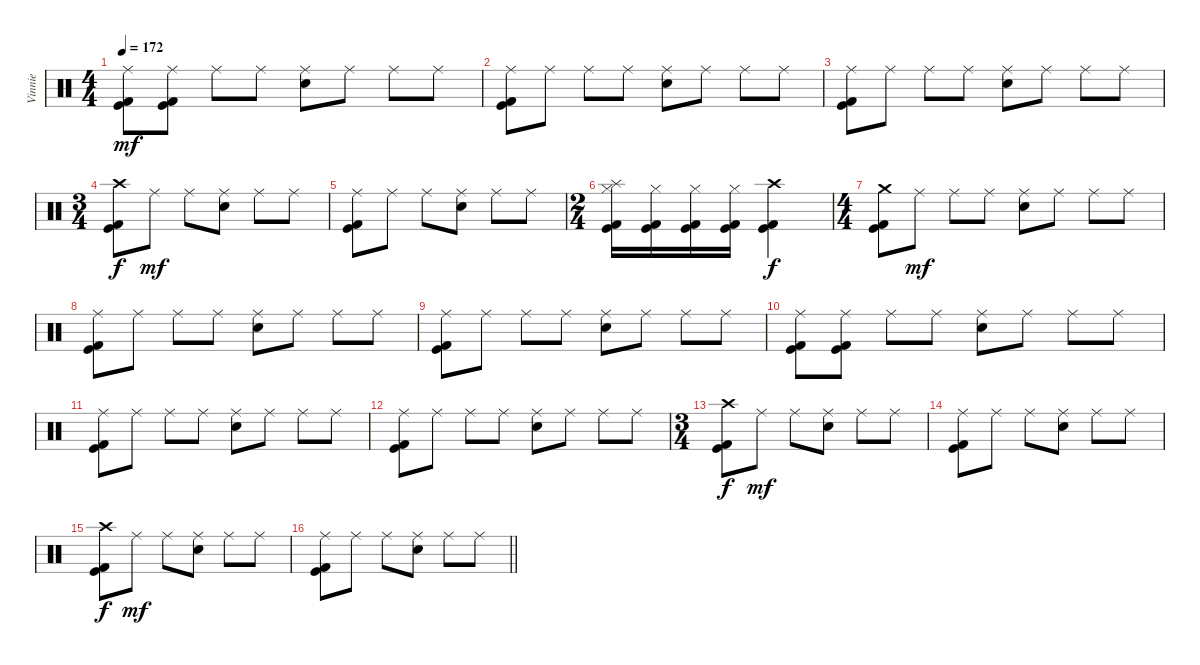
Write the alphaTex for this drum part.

\track ("Vinnie" "Vinnie") {instrument percussion}
\staff {score}
\articulation defaults
\ts (4 4)
\tempo 172
\clef neutral
\ks c
("Ride (middle)" "Kick (hit)" "Kick (hit) 2").8{dy mf} ("Ride (middle)" "Kick (hit)" "Kick (hit) 2").8 "Ride (middle)".8 "Ride (middle)".8 ("Ride (middle)" "Electric Snare (hit)").8 "Ride (middle)".8 "Ride (middle)".8 "Ride (middle)".8 |
("Ride (middle)" "Kick (hit)" "Kick (hit) 2").8 "Ride (middle)".8 "Ride (middle)".8 "Ride (middle)".8 ("Ride (middle)" "Electric Snare (hit)").8 "Ride (middle)".8 "Ride (middle)".8 "Ride (middle)".8 |
("Ride (middle)" "Kick (hit)" "Kick (hit) 2").8 "Ride (middle)".8 "Ride (middle)".8 "Ride (middle)".8 ("Ride (middle)" "Electric Snare (hit)").8 "Ride (middle)".8 "Ride (middle)".8 "Ride (middle)".8 |
\ts (3 4)
("Crash high (hit)" "Kick (hit)" "Kick (hit) 2").8{dy f} "Ride (middle)".8{dy mf} "Ride (middle)".8 ("Ride (middle)" "Electric Snare (hit)").8 "Ride (middle)".8 "Ride (middle)".8 |
("Ride (middle)" "Kick (hit)" "Kick (hit) 2").8 "Ride (middle)".8 "Ride (middle)".8 ("Ride (middle)" "Electric Snare (hit)").8 "Ride (middle)".8 "Ride (middle)".8 |
\ts (2 4)
("Hi-Hat (closed)" "Splash (hit)" "Kick (hit)" "Kick (hit) 2").16 ("Hi-Hat (closed)" "Kick (hit)" "Kick (hit) 2").16 ("Hi-Hat (closed)" "Kick (hit)" "Kick (hit) 2").16 ("Hi-Hat (closed)" "Kick (hit)" "Kick (hit) 2").16 ("Crash high (hit)" "Kick (hit)" "Kick (hit) 2").4{dy f} |
\ts (4 4)
("Crash medium (hit)" "Kick (hit)" "Kick (hit) 2").8 "Ride (middle)".8{dy mf} "Ride (middle)".8 "Ride (middle)".8 ("Ride (middle)" "Electric Snare (hit)").8 "Ride (middle)".8 "Ride (middle)".8 "Ride (middle)".8 |
("Ride (middle)" "Kick (hit)" "Kick (hit) 2").8 "Ride (middle)".8 "Ride (middle)".8 "Ride (middle)".8 ("Ride (middle)" "Electric Snare (hit)").8 "Ride (middle)".8 "Ride (middle)".8 "Ride (middle)".8 |
("Ride (middle)" "Kick (hit)" "Kick (hit) 2").8 "Ride (middle)".8 "Ride (middle)".8 "Ride (middle)".8 ("Ride (middle)" "Electric Snare (hit)").8 "Ride (middle)".8 "Ride (middle)".8 "Ride (middle)".8 |
("Ride (middle)" "Kick (hit)" "Kick (hit) 2").8 ("Ride (middle)" "Kick (hit)" "Kick (hit) 2").8 "Ride (middle)".8 "Ride (middle)".8 ("Ride (middle)" "Electric Snare (hit)").8 "Ride (middle)".8 "Ride (middle)".8 "Ride (middle)".8 |
("Ride (middle)" "Kick (hit)" "Kick (hit) 2").8 "Ride (middle)".8 "Ride (middle)".8 "Ride (middle)".8 ("Ride (middle)" "Electric Snare (hit)").8 "Ride (middle)".8 "Ride (middle)".8 "Ride (middle)".8 |
("Ride (middle)" "Kick (hit)" "Kick (hit) 2").8 "Ride (middle)".8 "Ride (middle)".8 "Ride (middle)".8 ("Ride (middle)" "Electric Snare (hit)").8 "Ride (middle)".8 "Ride (middle)".8 "Ride (middle)".8 |
\ts (3 4)
("Crash high (hit)" "Kick (hit)" "Kick (hit) 2").8{dy f} "Ride (middle)".8{dy mf} "Ride (middle)".8 ("Ride (middle)" "Electric Snare (hit)").8 "Ride (middle)".8 "Ride (middle)".8 |
("Ride (middle)" "Kick (hit)" "Kick (hit) 2").8 "Ride (middle)".8 "Ride (middle)".8 ("Ride (middle)" "Electric Snare (hit)").8 "Ride (middle)".8 "Ride (middle)".8 |
("Crash high (hit)" "Kick (hit)" "Kick (hit) 2").8{dy f} "Ride (middle)".8{dy mf} "Ride (middle)".8 ("Ride (middle)" "Electric Snare (hit)").8 "Ride (middle)".8 "Ride (middle)".8 |
\barLineRight lightlight
("Ride (middle)" "Kick (hit)" "Kick (hit) 2").8 "Ride (middle)".8 "Ride (middle)".8 ("Ride (middle)" "Electric Snare (hit)").8 "Ride (middle)".8 "Ride (middle)".8
